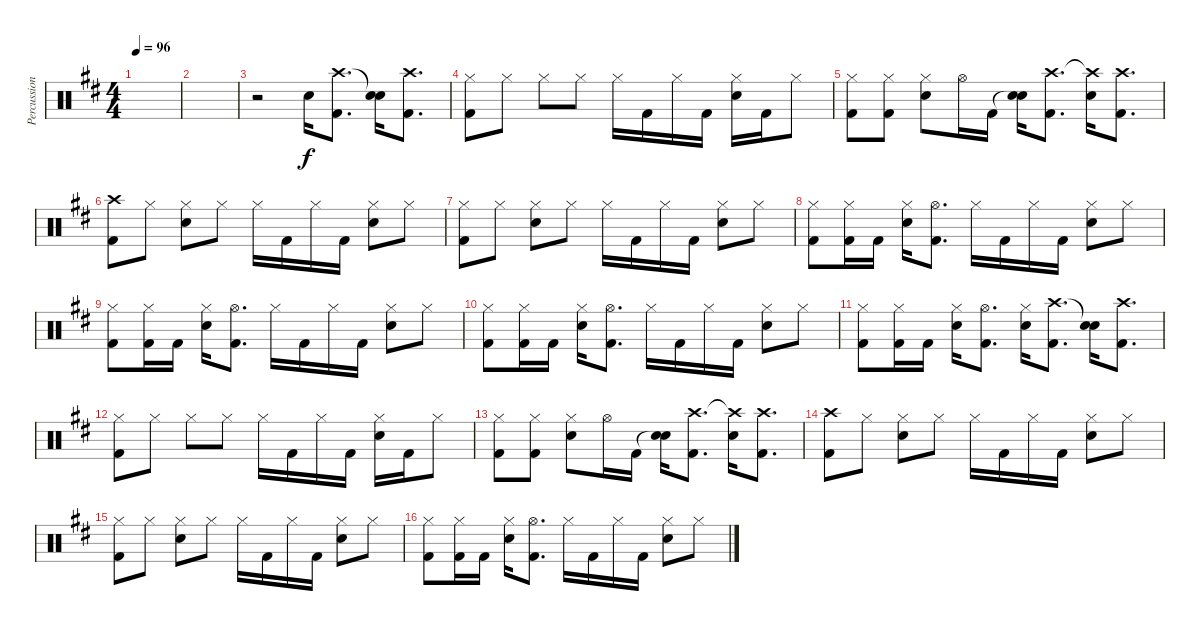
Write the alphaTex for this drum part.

\track ("Percussion" "Percussion") {instrument percussion}
\staff {score}
\articulation defaults
\ts (4 4)
\tempo 96
\clef neutral
\ks d
|
|
r.2 "Electric Snare (hit)".16 ("Crash high (hit)" "Kick (hit) 2").8{d} ("Snare (hit)"{t} "Electric Snare (hit)").16 ("Crash high (hit)" "Kick (hit) 2").8{d} |
("Hi-Hat (closed)" "Kick (hit) 2").8 "Hi-Hat (closed)".8 "Hi-Hat (closed)".8 "Hi-Hat (closed)".8 "Hi-Hat (closed)".16 "Kick (hit) 2".16 "Hi-Hat (closed)".16 "Kick (hit) 2".16 ("Hi-Hat (closed)" "Electric Snare (hit)").16 "Kick (hit) 2".16 "Hi-Hat (closed)".8 |
("Hi-Hat (closed)" "Kick (hit) 2").8 ("Hi-Hat (closed)" "Kick (hit) 2").8 ("Hi-Hat (closed)" "Electric Snare (hit)").8 "Hi-Hat (open)".16 "Kick (hit) 2".16 ("Snare (hit)"{t} "Electric Snare (hit)").16 ("Crash high (hit)" "Kick (hit) 2").8{d} ("Crash high (hit)"{t} "Electric Snare (hit)").16 ("Crash high (hit)" "Kick (hit) 2").8{d} |
("Crash high (hit)" "Kick (hit) 2").8 "Hi-Hat (closed)".8 ("Hi-Hat (closed)" "Electric Snare (hit)").8 "Hi-Hat (closed)".8 "Hi-Hat (closed)".16 "Kick (hit) 2".16 "Hi-Hat (closed)".16 "Kick (hit) 2".16 ("Hi-Hat (closed)" "Electric Snare (hit)").8 "Hi-Hat (closed)".8 |
("Hi-Hat (closed)" "Kick (hit) 2").8 "Hi-Hat (closed)".8 ("Hi-Hat (closed)" "Electric Snare (hit)").8 "Hi-Hat (closed)".8 "Hi-Hat (closed)".16 "Kick (hit) 2".16 "Hi-Hat (closed)".16 "Kick (hit) 2".16 ("Hi-Hat (closed)" "Electric Snare (hit)").8 "Hi-Hat (closed)".8 |
("Hi-Hat (closed)" "Kick (hit) 2").8 ("Hi-Hat (closed)" "Kick (hit) 2").16 "Kick (hit) 2".16 ("Hi-Hat (closed)" "Electric Snare (hit)").16 ("Hi-Hat (open)" "Kick (hit) 2").8{d} "Hi-Hat (closed)".16 "Kick (hit) 2".16 "Hi-Hat (closed)".16 "Kick (hit) 2".16 ("Hi-Hat (closed)" "Electric Snare (hit)").8 "Hi-Hat (closed)".8 |
("Hi-Hat (closed)" "Kick (hit) 2").8 ("Hi-Hat (closed)" "Kick (hit) 2").16 "Kick (hit) 2".16 ("Hi-Hat (closed)" "Electric Snare (hit)").16 ("Hi-Hat (open)" "Kick (hit) 2").8{d} "Hi-Hat (closed)".16 "Kick (hit) 2".16 "Hi-Hat (closed)".16 "Kick (hit) 2".16 ("Hi-Hat (closed)" "Electric Snare (hit)").8 "Hi-Hat (closed)".8 |
("Hi-Hat (closed)" "Kick (hit) 2").8 ("Hi-Hat (closed)" "Kick (hit) 2").16 "Kick (hit) 2".16 ("Hi-Hat (closed)" "Electric Snare (hit)").16 ("Hi-Hat (open)" "Kick (hit) 2").8{d} "Hi-Hat (closed)".16 "Kick (hit) 2".16 "Hi-Hat (closed)".16 "Kick (hit) 2".16 ("Hi-Hat (closed)" "Electric Snare (hit)").8 "Hi-Hat (closed)".8 |
("Hi-Hat (closed)" "Kick (hit) 2").8 ("Hi-Hat (closed)" "Kick (hit) 2").16 "Kick (hit) 2".16 ("Hi-Hat (closed)" "Electric Snare (hit)").16 ("Hi-Hat (open)" "Kick (hit) 2").8{d} ("Hi-Hat (closed)" "Electric Snare (hit)").16 ("Crash high (hit)" "Kick (hit) 2").8{d} ("Snare (hit)"{t} "Electric Snare (hit)").16 ("Crash high (hit)" "Kick (hit) 2").8{d} |
("Hi-Hat (closed)" "Kick (hit) 2").8 "Hi-Hat (closed)".8 "Hi-Hat (closed)".8 "Hi-Hat (closed)".8 "Hi-Hat (closed)".16 "Kick (hit) 2".16 "Hi-Hat (closed)".16 "Kick (hit) 2".16 ("Hi-Hat (closed)" "Electric Snare (hit)").16 "Kick (hit) 2".16 "Hi-Hat (closed)".8 |
("Hi-Hat (closed)" "Kick (hit) 2").8 ("Hi-Hat (closed)" "Kick (hit) 2").8 ("Hi-Hat (closed)" "Electric Snare (hit)").8 "Hi-Hat (open)".16 "Kick (hit) 2".16 ("Snare (hit)"{t} "Electric Snare (hit)").16 ("Crash high (hit)" "Kick (hit) 2").8{d} ("Crash high (hit)"{t} "Electric Snare (hit)").16 ("Crash high (hit)" "Kick (hit) 2").8{d} |
("Crash high (hit)" "Kick (hit) 2").8 "Hi-Hat (closed)".8 ("Hi-Hat (closed)" "Electric Snare (hit)").8 "Hi-Hat (closed)".8 "Hi-Hat (closed)".16 "Kick (hit) 2".16 "Hi-Hat (closed)".16 "Kick (hit) 2".16 ("Hi-Hat (closed)" "Electric Snare (hit)").8 "Hi-Hat (closed)".8 |
("Hi-Hat (closed)" "Kick (hit) 2").8 "Hi-Hat (closed)".8 ("Hi-Hat (closed)" "Electric Snare (hit)").8 "Hi-Hat (closed)".8 "Hi-Hat (closed)".16 "Kick (hit) 2".16 "Hi-Hat (closed)".16 "Kick (hit) 2".16 ("Hi-Hat (closed)" "Electric Snare (hit)").8 "Hi-Hat (closed)".8 |
("Hi-Hat (closed)" "Kick (hit) 2").8 ("Hi-Hat (closed)" "Kick (hit) 2").16 "Kick (hit) 2".16 ("Hi-Hat (closed)" "Electric Snare (hit)").16 ("Hi-Hat (open)" "Kick (hit) 2").8{d} "Hi-Hat (closed)".16 "Kick (hit) 2".16 "Hi-Hat (closed)".16 "Kick (hit) 2".16 ("Hi-Hat (closed)" "Electric Snare (hit)").8 "Hi-Hat (closed)".8
